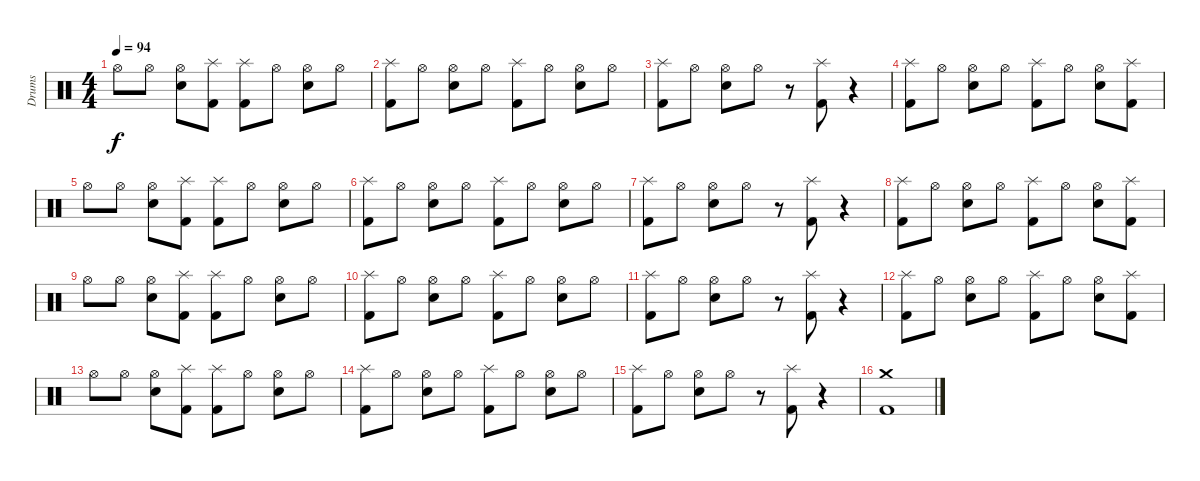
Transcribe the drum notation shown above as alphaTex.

\track ("Drums" "Drums") {instrument percussion}
\staff {score}
\articulation defaults
\ts (4 4)
\tempo 94
\clef neutral
\ks c "Hi-Hat (open)".8{dy f} "Hi-Hat (open)".8
("Hi-Hat (open)" "Electric Snare (hit)").8 ("Splash (hit)" "Kick (hit) 2").8 ("Splash (hit)" "Kick (hit) 2").8 "Hi-Hat (open)".8 ("Hi-Hat (open)" "Electric Snare (hit)").8 "Hi-Hat (open)".8 |
("Splash (hit)" "Kick (hit) 2").8 "Hi-Hat (open)".8 ("Hi-Hat (open)" "Electric Snare (hit)").8 "Hi-Hat (open)".8 ("Splash (hit)" "Kick (hit) 2").8 "Hi-Hat (open)".8 ("Hi-Hat (open)" "Electric Snare (hit)").8 "Hi-Hat (open)".8 |
("Splash (hit)" "Kick (hit) 2").8 "Hi-Hat (open)".8 ("Hi-Hat (open)" "Electric Snare (hit)").8 "Hi-Hat (open)".8 r.8 ("Splash (hit)" "Kick (hit) 2").8 r.4 |
("Splash (hit)" "Kick (hit) 2").8 "Hi-Hat (open)".8 ("Hi-Hat (open)" "Electric Snare (hit)").8 "Hi-Hat (open)".8 ("Splash (hit)" "Kick (hit) 2").8 "Hi-Hat (open)".8 ("Hi-Hat (open)" "Electric Snare (hit)").8 ("Splash (hit)" "Kick (hit) 2").8 |
"Hi-Hat (open)".8 "Hi-Hat (open)".8 ("Hi-Hat (open)" "Electric Snare (hit)").8 ("Splash (hit)" "Kick (hit) 2").8 ("Splash (hit)" "Kick (hit) 2").8 "Hi-Hat (open)".8 ("Hi-Hat (open)" "Electric Snare (hit)").8 "Hi-Hat (open)".8 |
("Splash (hit)" "Kick (hit) 2").8 "Hi-Hat (open)".8 ("Hi-Hat (open)" "Electric Snare (hit)").8 "Hi-Hat (open)".8 ("Splash (hit)" "Kick (hit) 2").8 "Hi-Hat (open)".8 ("Hi-Hat (open)" "Electric Snare (hit)").8 "Hi-Hat (open)".8 |
("Splash (hit)" "Kick (hit) 2").8 "Hi-Hat (open)".8 ("Hi-Hat (open)" "Electric Snare (hit)").8 "Hi-Hat (open)".8 r.8 ("Splash (hit)" "Kick (hit) 2").8 r.4 |
("Splash (hit)" "Kick (hit) 2").8 "Hi-Hat (open)".8 ("Hi-Hat (open)" "Electric Snare (hit)").8 "Hi-Hat (open)".8 ("Splash (hit)" "Kick (hit) 2").8 "Hi-Hat (open)".8 ("Hi-Hat (open)" "Electric Snare (hit)").8 ("Splash (hit)" "Kick (hit) 2").8 |
"Hi-Hat (open)".8 "Hi-Hat (open)".8 ("Hi-Hat (open)" "Electric Snare (hit)").8 ("Splash (hit)" "Kick (hit) 2").8 ("Splash (hit)" "Kick (hit) 2").8 "Hi-Hat (open)".8 ("Hi-Hat (open)" "Electric Snare (hit)").8 "Hi-Hat (open)".8 |
("Splash (hit)" "Kick (hit) 2").8 "Hi-Hat (open)".8 ("Hi-Hat (open)" "Electric Snare (hit)").8 "Hi-Hat (open)".8 ("Splash (hit)" "Kick (hit) 2").8 "Hi-Hat (open)".8 ("Hi-Hat (open)" "Electric Snare (hit)").8 "Hi-Hat (open)".8 |
("Splash (hit)" "Kick (hit) 2").8 "Hi-Hat (open)".8 ("Hi-Hat (open)" "Electric Snare (hit)").8 "Hi-Hat (open)".8 r.8 ("Splash (hit)" "Kick (hit) 2").8 r.4 |
("Splash (hit)" "Kick (hit) 2").8 "Hi-Hat (open)".8 ("Hi-Hat (open)" "Electric Snare (hit)").8 "Hi-Hat (open)".8 ("Splash (hit)" "Kick (hit) 2").8 "Hi-Hat (open)".8 ("Hi-Hat (open)" "Electric Snare (hit)").8 ("Splash (hit)" "Kick (hit) 2").8 |
"Hi-Hat (open)".8 "Hi-Hat (open)".8 ("Hi-Hat (open)" "Electric Snare (hit)").8 ("Splash (hit)" "Kick (hit) 2").8 ("Splash (hit)" "Kick (hit) 2").8 "Hi-Hat (open)".8 ("Hi-Hat (open)" "Electric Snare (hit)").8 "Hi-Hat (open)".8 |
("Splash (hit)" "Kick (hit) 2").8 "Hi-Hat (open)".8 ("Hi-Hat (open)" "Electric Snare (hit)").8 "Hi-Hat (open)".8 ("Splash (hit)" "Kick (hit) 2").8 "Hi-Hat (open)".8 ("Hi-Hat (open)" "Electric Snare (hit)").8 "Hi-Hat (open)".8 |
("Splash (hit)" "Kick (hit) 2").8 "Hi-Hat (open)".8 ("Hi-Hat (open)" "Electric Snare (hit)").8 "Hi-Hat (open)".8 r.8 ("Splash (hit)" "Kick (hit) 2").8 r.4 |
("Crash medium (hit)" "Kick (hit) 2").1
